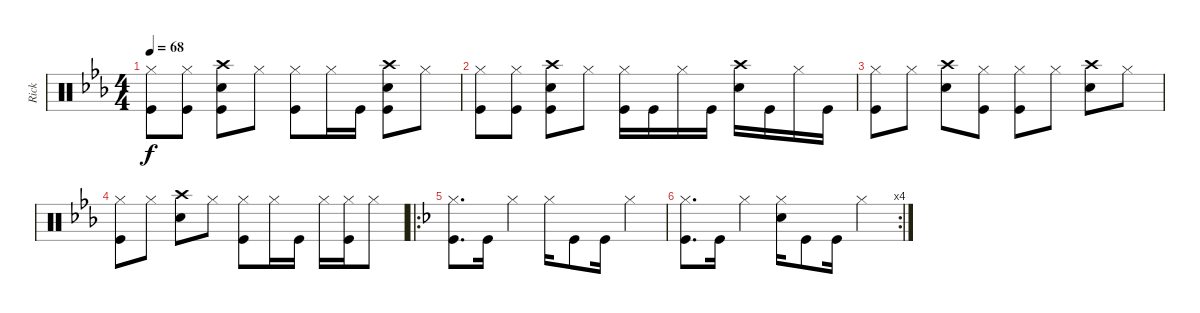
\track ("Rick " "Rick ") {instrument percussion}
\staff {score}
\articulation defaults
\ts (4 4)
\tempo 68
\clef neutral
\ks eb
("Hi-Hat (closed)" "Kick (hit)").8{dy f} ("Hi-Hat (closed)" "Kick (hit)").8 ("Crash high (hit)" "Snare (hit) 2" "Kick (hit)").8 "Hi-Hat (closed)".8 ("Hi-Hat (closed)" "Kick (hit)").8 "Hi-Hat (closed)".16 "Kick (hit)".16 ("Crash high (hit)" "Snare (hit) 2" "Kick (hit)").8 "Hi-Hat (closed)".8 |
("Hi-Hat (closed)" "Kick (hit)").8 ("Hi-Hat (closed)" "Kick (hit)").8 ("Crash high (hit)" "Snare (hit) 2" "Kick (hit)").8 "Hi-Hat (closed)".8 ("Hi-Hat (closed)" "Kick (hit)").16 "Kick (hit)".16 "Hi-Hat (closed)".16 "Kick (hit)".16 ("Crash high (hit)" "Snare (hit) 2").16 "Kick (hit)".16 "Hi-Hat (closed)".16 "Kick (hit)".16 |
("Hi-Hat (closed)" "Kick (hit)").8 "Hi-Hat (closed)".8 ("Crash high (hit)" "Snare (hit) 2").8 ("Hi-Hat (closed)" "Kick (hit)").8 ("Hi-Hat (closed)" "Kick (hit)").8 "Hi-Hat (closed)".8 ("Crash high (hit)" "Snare (hit) 2").8 "Hi-Hat (closed)".8 |
("Hi-Hat (closed)" "Kick (hit)").8 "Hi-Hat (closed)".8 ("Crash high (hit)" "Snare (hit) 2").8 "Hi-Hat (closed)".8 ("Hi-Hat (closed)" "Kick (hit)").8 "Hi-Hat (closed)".16 "Kick (hit)".16 "Hi-Hat (closed)".16 ("Hi-Hat (closed)" "Kick (hit)").16 "Hi-Hat (closed)".8 |
\ro
\ks dminor
("Hi-Hat (closed)" "Kick (hit)").8{d} "Kick (hit)".16 "Hi-Hat (closed)".4 "Hi-Hat (closed)".16 "Kick (hit)".8 "Kick (hit)".16 "Hi-Hat (closed)".4 |
\rc 4
("Hi-Hat (closed)" "Kick (hit)").8{d} "Kick (hit)".16 "Hi-Hat (closed)".4 ("Hi-Hat (closed)" "Snare (hit) 2").16 "Kick (hit)".8 "Kick (hit)".16 "Hi-Hat (closed)".4
